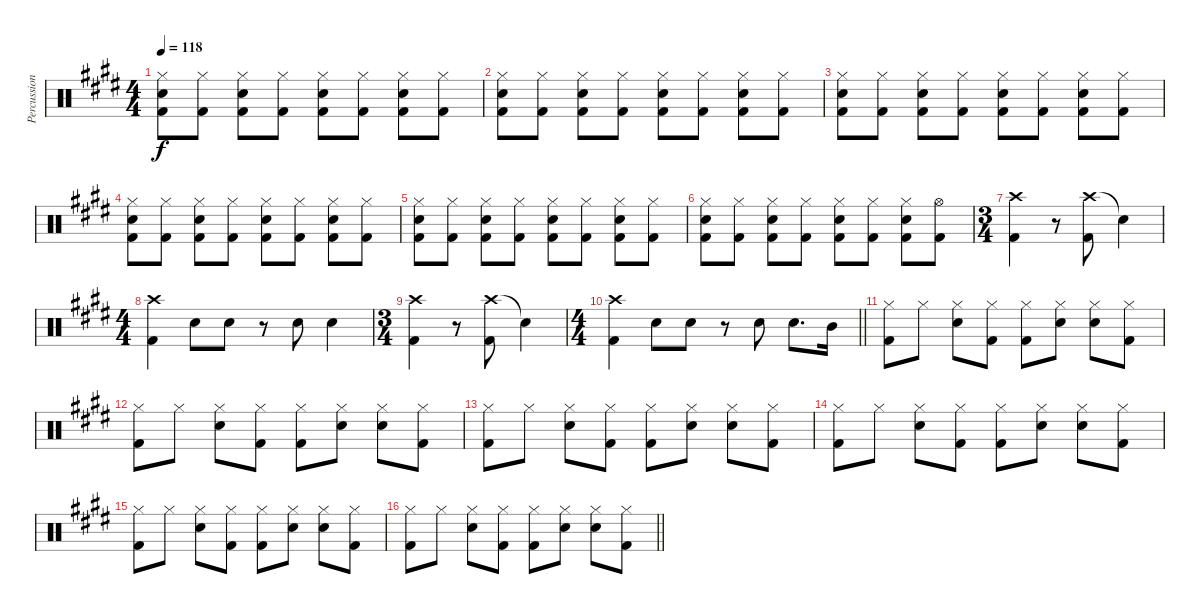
\track ("Percussion" "Percussion") {instrument percussion}
\staff {score}
\articulation defaults
\ts (4 4)
\tempo 118
\clef neutral
\ks e
("Hi-Hat (closed)" "Snare (hit) 2" "Kick (hit) 2").8{dy f} ("Hi-Hat (closed)" "Kick (hit) 2").8 ("Hi-Hat (closed)" "Snare (hit) 2" "Kick (hit) 2").8 ("Hi-Hat (closed)" "Kick (hit) 2").8 ("Hi-Hat (closed)" "Snare (hit) 2" "Kick (hit) 2").8 ("Hi-Hat (closed)" "Kick (hit) 2").8 ("Hi-Hat (closed)" "Snare (hit) 2" "Kick (hit) 2").8 ("Hi-Hat (closed)" "Kick (hit) 2").8 |
("Hi-Hat (closed)" "Snare (hit) 2" "Kick (hit) 2").8 ("Hi-Hat (closed)" "Kick (hit) 2").8 ("Hi-Hat (closed)" "Snare (hit) 2" "Kick (hit) 2").8 ("Hi-Hat (closed)" "Kick (hit) 2").8 ("Hi-Hat (closed)" "Snare (hit) 2" "Kick (hit) 2").8 ("Hi-Hat (closed)" "Kick (hit) 2").8 ("Hi-Hat (closed)" "Snare (hit) 2" "Kick (hit) 2").8 ("Hi-Hat (closed)" "Kick (hit) 2").8 |
("Hi-Hat (closed)" "Snare (hit) 2" "Kick (hit) 2").8 ("Hi-Hat (closed)" "Kick (hit) 2").8 ("Hi-Hat (closed)" "Snare (hit) 2" "Kick (hit) 2").8 ("Hi-Hat (closed)" "Kick (hit) 2").8 ("Hi-Hat (closed)" "Snare (hit) 2" "Kick (hit) 2").8 ("Hi-Hat (closed)" "Kick (hit) 2").8 ("Hi-Hat (closed)" "Snare (hit) 2" "Kick (hit) 2").8 ("Hi-Hat (closed)" "Kick (hit) 2").8 |
("Hi-Hat (closed)" "Snare (hit) 2" "Kick (hit) 2").8 ("Hi-Hat (closed)" "Kick (hit) 2").8 ("Hi-Hat (closed)" "Snare (hit) 2" "Kick (hit) 2").8 ("Hi-Hat (closed)" "Kick (hit) 2").8 ("Hi-Hat (closed)" "Snare (hit) 2" "Kick (hit) 2").8 ("Hi-Hat (closed)" "Kick (hit) 2").8 ("Hi-Hat (closed)" "Snare (hit) 2" "Kick (hit) 2").8 ("Hi-Hat (closed)" "Kick (hit) 2").8 |
("Hi-Hat (closed)" "Snare (hit) 2" "Kick (hit) 2").8 ("Hi-Hat (closed)" "Kick (hit) 2").8 ("Hi-Hat (closed)" "Snare (hit) 2" "Kick (hit) 2").8 ("Hi-Hat (closed)" "Kick (hit) 2").8 ("Hi-Hat (closed)" "Snare (hit) 2" "Kick (hit) 2").8 ("Hi-Hat (closed)" "Kick (hit) 2").8 ("Hi-Hat (closed)" "Snare (hit) 2" "Kick (hit) 2").8 ("Hi-Hat (closed)" "Kick (hit) 2").8 |
("Hi-Hat (closed)" "Snare (hit) 2" "Kick (hit) 2").8 ("Hi-Hat (closed)" "Kick (hit) 2").8 ("Hi-Hat (closed)" "Snare (hit) 2" "Kick (hit) 2").8 ("Hi-Hat (closed)" "Kick (hit) 2").8 ("Hi-Hat (closed)" "Snare (hit) 2" "Kick (hit) 2").8 ("Hi-Hat (closed)" "Kick (hit) 2").8 ("Hi-Hat (closed)" "Snare (hit) 2" "Kick (hit) 2").8 ("Hi-Hat (open)" "Kick (hit) 2").8 |
\ts (3 4)
("Crash high (hit)" "Kick (hit) 2").4 r.8 ("Crash high (hit)" "Kick (hit) 2").8 "Snare (hit)"{t}.4 |
\ts (4 4)
("Crash high (hit)" "Kick (hit) 2").4 "Snare (hit) 2".8 "Snare (hit) 2".8 r.8 "Snare (hit) 2".8 "Snare (hit) 2".4 |
\ts (3 4)
("Crash high (hit)" "Kick (hit) 2").4 r.8 ("Crash high (hit)" "Kick (hit) 2").8 "Snare (hit)"{t}.4 |
\ts (4 4)
\barLineRight lightlight
("Crash high (hit)" "Kick (hit) 2").4 "Snare (hit) 2".8 "Snare (hit) 2".8 r.8 "Snare (hit) 2".8 "Snare (hit) 2".8{d} "Mid Tom (hit)".16 |
("Hi-Hat (closed)" "Kick (hit) 2").8 "Hi-Hat (closed)".8 ("Hi-Hat (closed)" "Snare (hit) 2").8 ("Hi-Hat (closed)" "Kick (hit) 2").8 ("Hi-Hat (closed)" "Kick (hit) 2").8 ("Hi-Hat (closed)" "Snare (hit) 2").8 ("Hi-Hat (closed)" "Snare (hit) 2").8 ("Hi-Hat (closed)" "Kick (hit) 2").8 |
("Hi-Hat (closed)" "Kick (hit) 2").8 "Hi-Hat (closed)".8 ("Hi-Hat (closed)" "Snare (hit) 2").8 ("Hi-Hat (closed)" "Kick (hit) 2").8 ("Hi-Hat (closed)" "Kick (hit) 2").8 ("Hi-Hat (closed)" "Snare (hit) 2").8 ("Hi-Hat (closed)" "Snare (hit) 2").8 ("Hi-Hat (closed)" "Kick (hit) 2").8 |
("Hi-Hat (closed)" "Kick (hit) 2").8 "Hi-Hat (closed)".8 ("Hi-Hat (closed)" "Snare (hit) 2").8 ("Hi-Hat (closed)" "Kick (hit) 2").8 ("Hi-Hat (closed)" "Kick (hit) 2").8 ("Hi-Hat (closed)" "Snare (hit) 2").8 ("Hi-Hat (closed)" "Snare (hit) 2").8 ("Hi-Hat (closed)" "Kick (hit) 2").8 |
("Hi-Hat (closed)" "Kick (hit) 2").8 "Hi-Hat (closed)".8 ("Hi-Hat (closed)" "Snare (hit) 2").8 ("Hi-Hat (closed)" "Kick (hit) 2").8 ("Hi-Hat (closed)" "Kick (hit) 2").8 ("Hi-Hat (closed)" "Snare (hit) 2").8 ("Hi-Hat (closed)" "Snare (hit) 2").8 ("Hi-Hat (closed)" "Kick (hit) 2").8 |
("Hi-Hat (closed)" "Kick (hit) 2").8 "Hi-Hat (closed)".8 ("Hi-Hat (closed)" "Snare (hit) 2").8 ("Hi-Hat (closed)" "Kick (hit) 2").8 ("Hi-Hat (closed)" "Kick (hit) 2").8 ("Hi-Hat (closed)" "Snare (hit) 2").8 ("Hi-Hat (closed)" "Snare (hit) 2").8 ("Hi-Hat (closed)" "Kick (hit) 2").8 |
\barLineRight lightlight
("Hi-Hat (closed)" "Kick (hit) 2").8 "Hi-Hat (closed)".8 ("Hi-Hat (closed)" "Snare (hit) 2").8 ("Hi-Hat (closed)" "Kick (hit) 2").8 ("Hi-Hat (closed)" "Kick (hit) 2").8 ("Hi-Hat (closed)" "Snare (hit) 2").8 ("Hi-Hat (closed)" "Snare (hit) 2").8 ("Hi-Hat (closed)" "Kick (hit) 2").8
